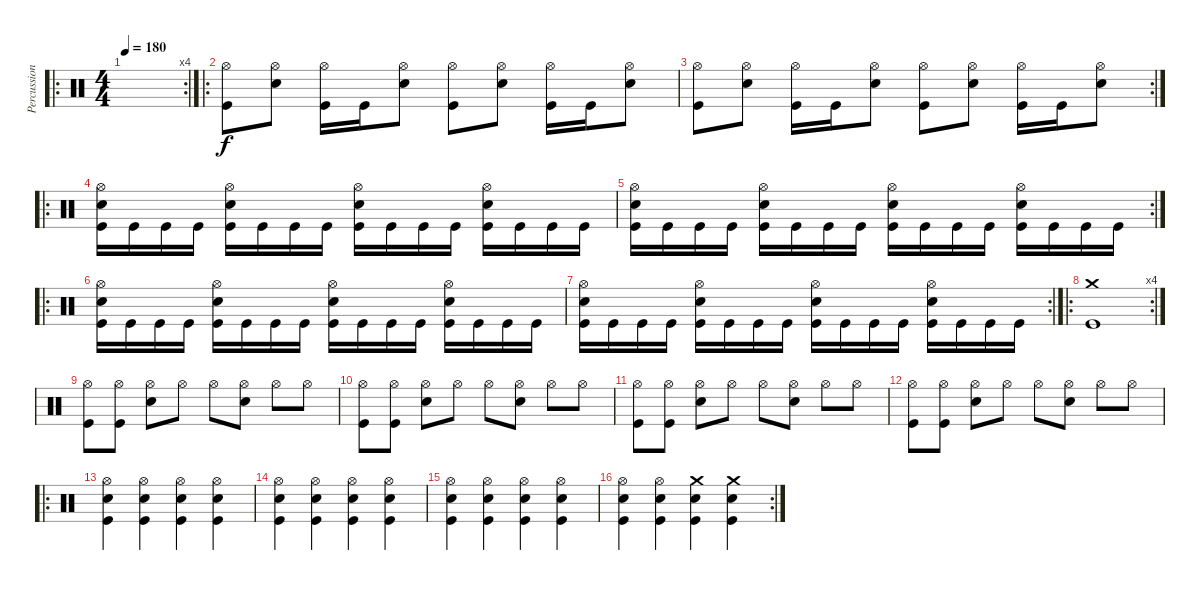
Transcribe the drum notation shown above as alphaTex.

\track ("Percussion" "Percussion") {instrument percussion}
\staff {score}
\articulation defaults
\ro
\rc 4
\ts (4 4)
\tempo 180
\clef neutral
\ks c
|
\ro
("Hi-Hat (open)" "Kick (hit)").8 ("Hi-Hat (open)" "Snare (hit) 2").8 ("Hi-Hat (open)" "Kick (hit)").16 "Kick (hit)".16 ("Hi-Hat (open)" "Snare (hit) 2").8 ("Hi-Hat (open)" "Kick (hit)").8 ("Hi-Hat (open)" "Snare (hit) 2").8 ("Hi-Hat (open)" "Kick (hit)").16 "Kick (hit)".16 ("Hi-Hat (open)" "Snare (hit) 2").8 |
\rc 2
("Hi-Hat (open)" "Kick (hit)").8 ("Hi-Hat (open)" "Snare (hit) 2").8 ("Hi-Hat (open)" "Kick (hit)").16 "Kick (hit)".16 ("Hi-Hat (open)" "Snare (hit) 2").8 ("Hi-Hat (open)" "Kick (hit)").8 ("Hi-Hat (open)" "Snare (hit) 2").8 ("Hi-Hat (open)" "Kick (hit)").16 "Kick (hit)".16 ("Hi-Hat (open)" "Snare (hit) 2").8 |
\ro
("Hi-Hat (open)" "Snare (hit) 2" "Kick (hit)").16 "Kick (hit)".16 "Kick (hit)".16 "Kick (hit)".16 ("Hi-Hat (open)" "Snare (hit) 2" "Kick (hit)").16 "Kick (hit)".16 "Kick (hit)".16 "Kick (hit)".16 ("Hi-Hat (open)" "Snare (hit) 2" "Kick (hit)").16 "Kick (hit)".16 "Kick (hit)".16 "Kick (hit)".16 ("Hi-Hat (open)" "Snare (hit) 2" "Kick (hit)").16 "Kick (hit)".16 "Kick (hit)".16 "Kick (hit)".16 |
\rc 2
("Hi-Hat (open)" "Snare (hit) 2" "Kick (hit)").16 "Kick (hit)".16 "Kick (hit)".16 "Kick (hit)".16 ("Hi-Hat (open)" "Snare (hit) 2" "Kick (hit)").16 "Kick (hit)".16 "Kick (hit)".16 "Kick (hit)".16 ("Hi-Hat (open)" "Snare (hit) 2" "Kick (hit)").16 "Kick (hit)".16 "Kick (hit)".16 "Kick (hit)".16 ("Hi-Hat (open)" "Snare (hit) 2" "Kick (hit)").16 "Kick (hit)".16 "Kick (hit)".16 "Kick (hit)".16 |
\ro
("Hi-Hat (open)" "Snare (hit) 2" "Kick (hit)").16 "Kick (hit)".16 "Kick (hit)".16 "Kick (hit)".16 ("Hi-Hat (open)" "Snare (hit) 2" "Kick (hit)").16 "Kick (hit)".16 "Kick (hit)".16 "Kick (hit)".16 ("Hi-Hat (open)" "Snare (hit) 2" "Kick (hit)").16 "Kick (hit)".16 "Kick (hit)".16 "Kick (hit)".16 ("Hi-Hat (open)" "Snare (hit) 2" "Kick (hit)").16 "Kick (hit)".16 "Kick (hit)".16 "Kick (hit)".16 |
\rc 2
("Hi-Hat (open)" "Snare (hit) 2" "Kick (hit)").16 "Kick (hit)".16 "Kick (hit)".16 "Kick (hit)".16 ("Hi-Hat (open)" "Snare (hit) 2" "Kick (hit)").16 "Kick (hit)".16 "Kick (hit)".16 "Kick (hit)".16 ("Hi-Hat (open)" "Snare (hit) 2" "Kick (hit)").16 "Kick (hit)".16 "Kick (hit)".16 "Kick (hit)".16 ("Hi-Hat (open)" "Snare (hit) 2" "Kick (hit)").16 "Kick (hit)".16 "Kick (hit)".16 "Kick (hit)".16 |
\ro
\rc 4
("Crash medium (hit)" "Kick (hit)").1 |
("Hi-Hat (open)" "Kick (hit)").8 ("Hi-Hat (open)" "Kick (hit)").8 ("Hi-Hat (open)" "Snare (hit) 2").8 "Hi-Hat (open)".8 "Hi-Hat (open)".8 ("Hi-Hat (open)" "Snare (hit) 2").8 "Hi-Hat (open)".8 "Hi-Hat (open)".8 |
("Hi-Hat (open)" "Kick (hit)").8 ("Hi-Hat (open)" "Kick (hit)").8 ("Hi-Hat (open)" "Snare (hit) 2").8 "Hi-Hat (open)".8 "Hi-Hat (open)".8 ("Hi-Hat (open)" "Snare (hit) 2").8 "Hi-Hat (open)".8 "Hi-Hat (open)".8 |
("Hi-Hat (open)" "Kick (hit)").8 ("Hi-Hat (open)" "Kick (hit)").8 ("Hi-Hat (open)" "Snare (hit) 2").8 "Hi-Hat (open)".8 "Hi-Hat (open)".8 ("Hi-Hat (open)" "Snare (hit) 2").8 "Hi-Hat (open)".8 "Hi-Hat (open)".8 |
("Hi-Hat (open)" "Kick (hit)").8 ("Hi-Hat (open)" "Kick (hit)").8 ("Hi-Hat (open)" "Snare (hit) 2").8 "Hi-Hat (open)".8 "Hi-Hat (open)".8 ("Hi-Hat (open)" "Snare (hit) 2").8 "Hi-Hat (open)".8 "Hi-Hat (open)".8 |
\ro
("Hi-Hat (open)" "Snare (hit) 2" "Kick (hit)").4 ("Hi-Hat (open)" "Snare (hit) 2" "Kick (hit)").4 ("Hi-Hat (open)" "Snare (hit) 2" "Kick (hit)").4 ("Hi-Hat (open)" "Snare (hit) 2" "Kick (hit)").4 |
("Hi-Hat (open)" "Snare (hit) 2" "Kick (hit)").4 ("Hi-Hat (open)" "Snare (hit) 2" "Kick (hit)").4 ("Hi-Hat (open)" "Snare (hit) 2" "Kick (hit)").4 ("Hi-Hat (open)" "Snare (hit) 2" "Kick (hit)").4 |
("Hi-Hat (open)" "Snare (hit) 2" "Kick (hit)").4 ("Hi-Hat (open)" "Snare (hit) 2" "Kick (hit)").4 ("Hi-Hat (open)" "Snare (hit) 2" "Kick (hit)").4 ("Hi-Hat (open)" "Snare (hit) 2" "Kick (hit)").4 |
\rc 2
("Hi-Hat (open)" "Snare (hit) 2" "Kick (hit)").4 ("Hi-Hat (open)" "Snare (hit) 2" "Kick (hit)").4 ("Crash medium (hit)" "Snare (hit) 2" "Kick (hit)").4 ("Crash medium (hit)" "Snare (hit) 2" "Kick (hit)").4
